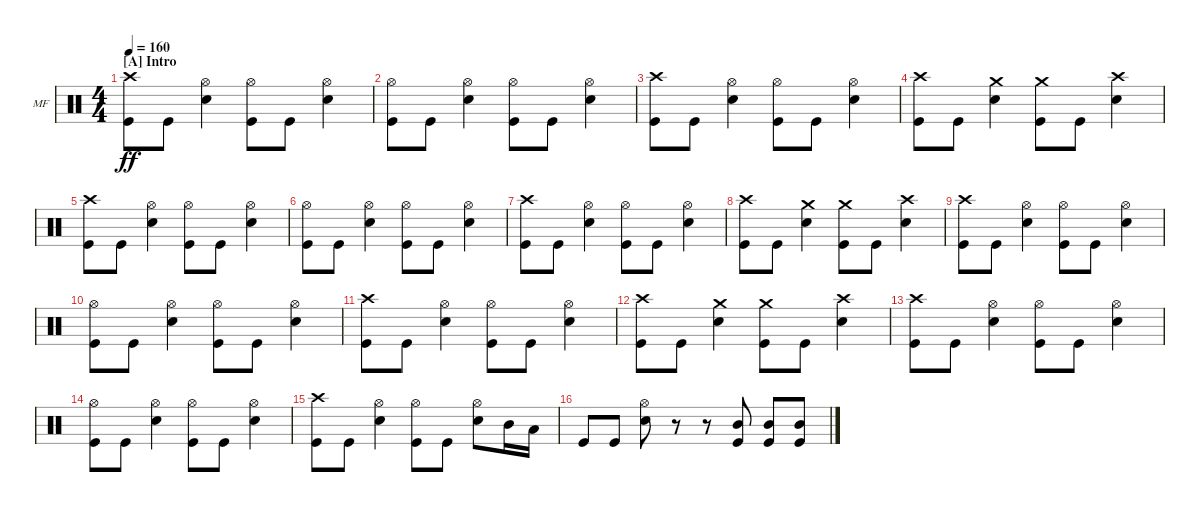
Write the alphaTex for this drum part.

\defaultSystemsLayout 4
\bracketExtendMode groupsimilarinstruments
\firstSystemTrackNameOrientation horizontal
\otherSystemsTrackNameOrientation horizontal
\track ("Mike Felumlee - Drums" "MF") {instrument percussion}
\staff {score}
\articulation defaults
\ts (4 4)
\section ("A" "Intro")
\tempo 160
\clef neutral
\ks c
("Crash high (hit)" "Kick (hit)").8{dy ff} "Kick (hit)".8 ("Hi-Hat (open)" "Snare (hit) 2").4 ("Hi-Hat (open)" "Kick (hit)").8 "Kick (hit)".8 ("Hi-Hat (open)" "Snare (hit) 2").4 |
("Hi-Hat (open)" "Kick (hit)").8 "Kick (hit)".8 ("Hi-Hat (open)" "Snare (hit) 2").4 ("Hi-Hat (open)" "Kick (hit)").8 "Kick (hit)".8 ("Hi-Hat (open)" "Snare (hit) 2").4 |
("Crash high (hit)" "Kick (hit)").8 "Kick (hit)".8 ("Hi-Hat (open)" "Snare (hit) 2").4 ("Hi-Hat (open)" "Kick (hit)").8 "Kick (hit)".8 ("Hi-Hat (open)" "Snare (hit) 2").4 |
("Crash high (hit)" "Kick (hit)").8 "Kick (hit)".8 ("Snare (hit) 2" "Crash medium (hit)").4 ("Kick (hit)" "Crash medium (hit)").8 "Kick (hit)".8 ("Snare (hit) 2" "Crash high (hit)").4 |
("Crash high (hit)" "Kick (hit)").8 "Kick (hit)".8 ("Hi-Hat (open)" "Snare (hit) 2").4 ("Hi-Hat (open)" "Kick (hit)").8 "Kick (hit)".8 ("Hi-Hat (open)" "Snare (hit) 2").4 |
("Hi-Hat (open)" "Kick (hit)").8 "Kick (hit)".8 ("Hi-Hat (open)" "Snare (hit) 2").4 ("Hi-Hat (open)" "Kick (hit)").8 "Kick (hit)".8 ("Hi-Hat (open)" "Snare (hit) 2").4 |
("Crash high (hit)" "Kick (hit)").8 "Kick (hit)".8 ("Hi-Hat (open)" "Snare (hit) 2").4 ("Hi-Hat (open)" "Kick (hit)").8 "Kick (hit)".8 ("Hi-Hat (open)" "Snare (hit) 2").4 |
("Crash high (hit)" "Kick (hit)").8 "Kick (hit)".8 ("Snare (hit) 2" "Crash medium (hit)").4 ("Kick (hit)" "Crash medium (hit)").8 "Kick (hit)".8 ("Snare (hit) 2" "Crash high (hit)").4 |
("Crash high (hit)" "Kick (hit)").8 "Kick (hit)".8 ("Hi-Hat (open)" "Snare (hit) 2").4 ("Hi-Hat (open)" "Kick (hit)").8 "Kick (hit)".8 ("Hi-Hat (open)" "Snare (hit) 2").4 |
("Hi-Hat (open)" "Kick (hit)").8 "Kick (hit)".8 ("Hi-Hat (open)" "Snare (hit) 2").4 ("Hi-Hat (open)" "Kick (hit)").8 "Kick (hit)".8 ("Hi-Hat (open)" "Snare (hit) 2").4 |
("Crash high (hit)" "Kick (hit)").8 "Kick (hit)".8 ("Hi-Hat (open)" "Snare (hit) 2").4 ("Hi-Hat (open)" "Kick (hit)").8 "Kick (hit)".8 ("Hi-Hat (open)" "Snare (hit) 2").4 |
("Crash high (hit)" "Kick (hit)").8 "Kick (hit)".8 ("Snare (hit) 2" "Crash medium (hit)").4 ("Kick (hit)" "Crash medium (hit)").8 "Kick (hit)".8 ("Snare (hit) 2" "Crash high (hit)").4 |
("Crash high (hit)" "Kick (hit)").8 "Kick (hit)".8 ("Hi-Hat (open)" "Snare (hit) 2").4 ("Hi-Hat (open)" "Kick (hit)").8 "Kick (hit)".8 ("Hi-Hat (open)" "Snare (hit) 2").4 |
("Hi-Hat (open)" "Kick (hit)").8 "Kick (hit)".8 ("Hi-Hat (open)" "Snare (hit) 2").4 ("Hi-Hat (open)" "Kick (hit)").8 "Kick (hit)".8 ("Hi-Hat (open)" "Snare (hit) 2").4 |
("Crash high (hit)" "Kick (hit)").8 "Kick (hit)".8 ("Hi-Hat (open)" "Snare (hit) 2").4 ("Hi-Hat (open)" "Kick (hit)").8 "Kick (hit)".8 ("Hi-Hat (open)" "Snare (hit) 2").8 "Mid Tom (hit)".16 "Low Tom (hit)".16 |
"Kick (hit)".8 "Kick (hit)".8 ("Hi-Hat (open)" "Snare (hit) 2").8 r.8 r.8 ("Kick (hit)" "Mid Tom (hit)").8 ("Kick (hit)" "Mid Tom (hit)").8 ("Kick (hit)" "Mid Tom (hit)").8
